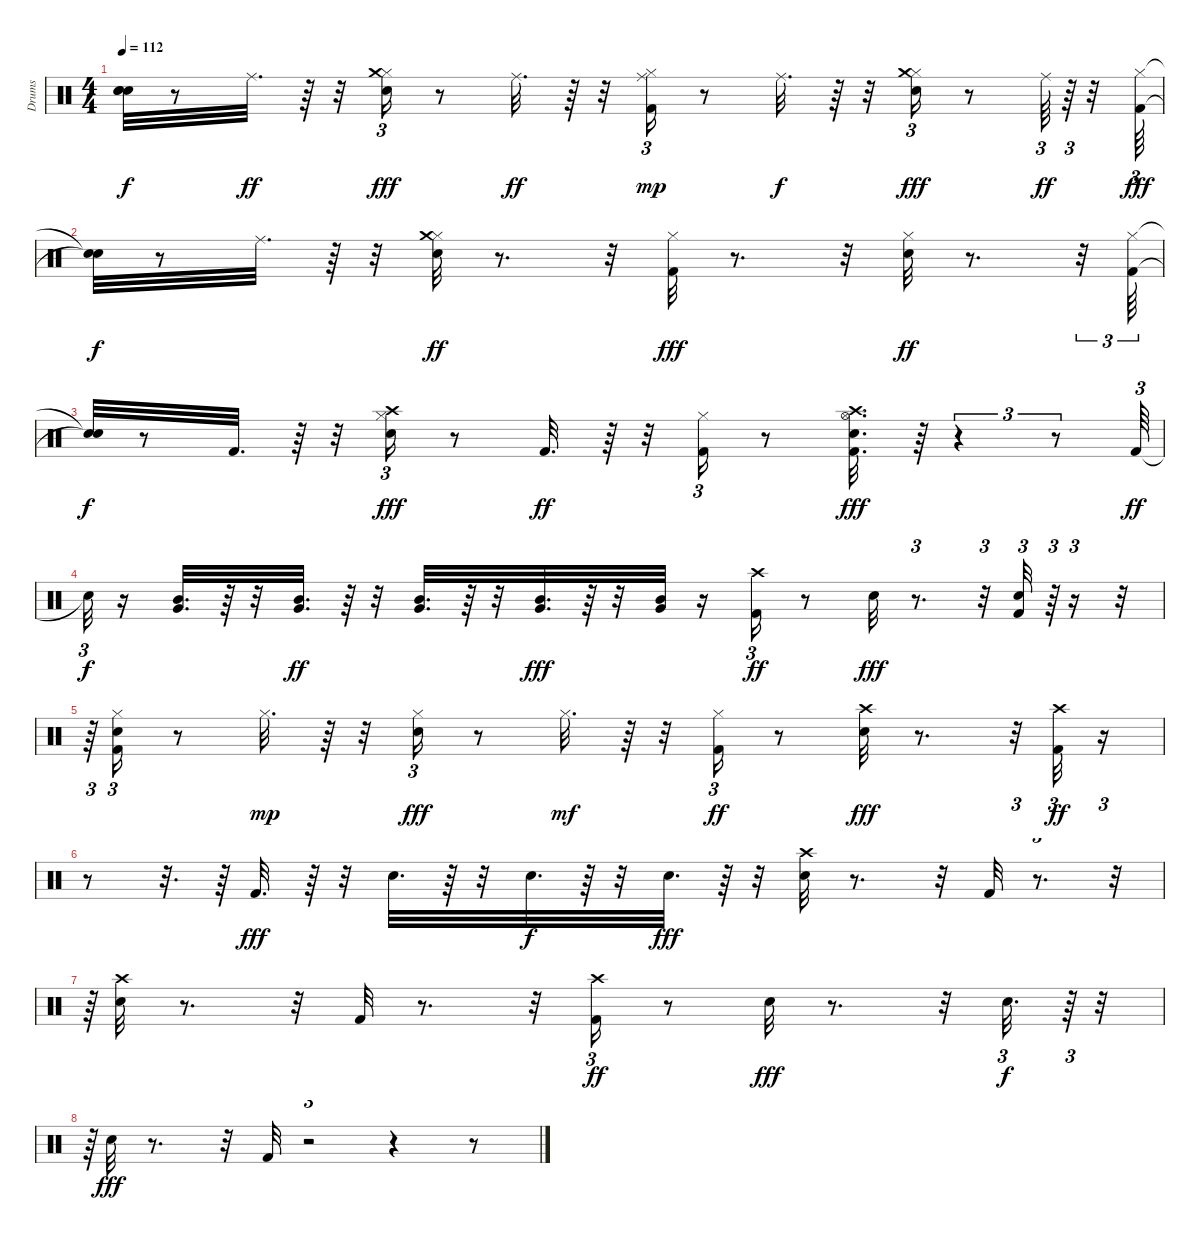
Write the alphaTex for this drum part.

\track ("Drums" "Drums") {instrument percussion}
\staff {score}
\articulation defaults
\ts (4 4)
\tempo 112
\clef neutral
\ks c
("Snare (hit)"{t} "Snare (hit)"{t} "Snare (hit)"{t}).32{dy f} r.8 "Ride (middle)".32{d dy ff} r.64 r.32 ("Hi-Hat (closed)" "Crash medium (hit)" "Electric Snare (hit)").16{tu (3 2) dy fff} r.8 "Ride (middle)".32{d dy ff} r.64 r.32 ("Kick (hit) 2" "Hi-Hat (closed)" "Ride (middle)").16{tu (3 2) dy mp} r.8 "Ride (middle)".32{d dy f} r.64 r.32 ("Hi-Hat (closed)" "Crash medium (hit)" "Electric Snare (hit)").16{tu (3 2) dy fff} r.8 "Ride (middle)".64{tu (3 2) dy ff} r.64{tu (3 2)} r.32 ("Kick (hit) 2" "Hi-Hat (closed)").64{tu (3 2) dy fff} |
("Snare (hit)"{t} "Snare (hit)"{t}).32{dy f} r.8 "Ride (middle)".32{d} r.64 r.32 ("Hi-Hat (closed)" "Crash medium (hit)" "Electric Snare (hit)").32{dy ff} r.8{d} r.32 ("Kick (hit) 2" "Hi-Hat (closed)").32{dy fff} r.8{d} r.32 ("Hi-Hat (closed)" "Electric Snare (hit)").32{dy ff} r.8{d} r.32{tu (3 2)} ("Kick (hit) 2" "Hi-Hat (closed)").64{tu (3 2)} |
("Snare (hit)"{t} "Snare (hit)"{t}).32{dy f} r.8 "Kick (hit) 2".32{d} r.64 r.32 ("Hi-Hat (closed)" "Crash high (hit)" "Electric Snare (hit)").16{tu (3 2) dy fff} r.8 "Kick (hit) 2".32{d dy ff} r.64 r.32 ("Kick (hit) 2" "Hi-Hat (closed)").16{tu (3 2)} r.8 ("Kick (hit) 2" "Hi-Hat (open)" "Crash high (hit)" "Electric Snare (hit)").32{d dy fff} r.64 r.4{tu (3 2)} r.8{tu (3 2)} "Kick (hit) 2".64{tu (3 2) dy ff} |
"Snare (hit)"{t}.32{tu (3 2) dy f} r.16 ("Very Low Tom (hit)" "Mid Tom (hit)").32{d} r.64 r.32 ("Very Low Tom (hit)" "Mid Tom (hit)").32{d dy ff} r.64 r.32 ("Very Low Tom (hit)" "Mid Tom (hit)").32{d} r.64 r.32 ("Very Low Tom (hit)" "Mid Tom (hit)").32{d dy fff} r.64 r.32 ("Mid Tom (hit)" "Very Low Tom (hit)").32 r.16 ("Kick (hit) 2" "Crash high (hit)").16{tu (3 2) dy ff} r.8 "Electric Snare (hit)".32{dy fff} r.8{d tu (3 2)} r.32{tu (3 2)} ("Kick (hit) 2" "Electric Snare (hit)").32{tu (3 2)} r.64{tu (3 2)} r.16{tu (3 2)} r.32 |
r.64{tu (3 2)} ("Kick (hit) 2" "Hi-Hat (closed)" "Electric Snare (hit)").16{tu (3 2)} r.8 "Hi-Hat (closed)".32{d dy mp} r.64 r.32 ("Hi-Hat (closed)" "Electric Snare (hit)").16{tu (3 2) dy fff} r.8 "Hi-Hat (closed)".32{d dy mf} r.64 r.32 ("Kick (hit) 2" "Hi-Hat (closed)").16{tu (3 2) dy ff} r.8 ("Crash high (hit)" "Electric Snare (hit)").32{dy fff} r.8{d} r.32{tu (3 2)} ("Kick (hit) 2" "Crash high (hit)").32{tu (3 2) dy ff} r.16{tu (3 2)} |
r.8 r.32{d} r.64 "Kick (hit) 2".32{d dy fff} r.64 r.32 "Electric Snare (hit)".32{d} r.64 r.32 "Electric Snare (hit)".32{d dy f} r.64 r.32 "Electric Snare (hit)".32{d dy fff} r.64 r.32 ("Crash high (hit)" "Electric Snare (hit)").32 r.8{d} r.32 "Kick (hit) 2".32 r.8{d tu (3 2)} r.32 |
r.64{tu (3 2)} ("Crash high (hit)" "Electric Snare (hit)").32 r.8{d} r.32 "Kick (hit) 2".32 r.8{d} r.32 ("Kick (hit) 2" "Crash high (hit)").16{tu (3 2) dy ff} r.8 "Electric Snare (hit)".32{dy fff} r.8{d} r.32 "Electric Snare (hit)".32{d tu (3 2) dy f} r.64{tu (3 2)} r.32 |
r.64{tu (3 2)} "Electric Snare (hit)".32{dy fff} r.8{d} r.32 "Kick (hit) 2".32 r.2{tu (3 2)} r.4 r.8
